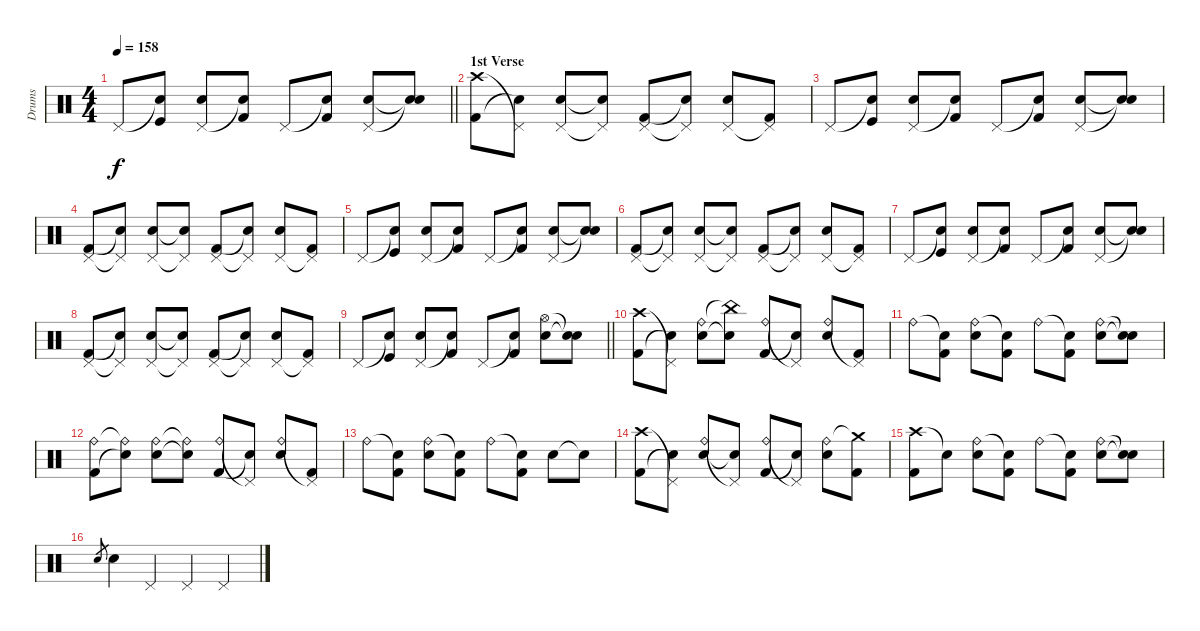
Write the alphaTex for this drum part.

\track ("Drums" "Drums") {instrument percussion}
\staff {score}
\articulation defaults
\ts (4 4)
\tempo 158
\clef neutral
\barLineRight lightlight
\ks c "Pedal Hi-Hat (hit)".8{dy f}
("Snare (hit)"{t} "Kick (hit)").8 ("Pedal Hi-Hat (hit)" "Electric Snare (hit)").8 ("Snare (hit)"{t} "Kick (hit) 2").8 "Pedal Hi-Hat (hit)".8 ("Snare (hit)"{t} "Kick (hit) 2").8 ("Pedal Hi-Hat (hit)" "Electric Snare (hit)").8 ("Snare (hit)"{t} "Snare (hit)"{t}).8 |
\section ("" "1st Verse")
("Crash high (hit)" "Kick (hit) 2").8 ("Pedal Hi-Hat (hit)"{t} "Electric Snare (hit)"{t}).8 ("Pedal Hi-Hat (hit)" "Electric Snare (hit)").8 ("Pedal Hi-Hat (hit)"{t} "Snare (hit)"{t}).8 ("Pedal Hi-Hat (hit)" "Kick (hit) 2").8 ("Pedal Hi-Hat (hit)"{t} "Electric Snare (hit)"{t}).8 ("Pedal Hi-Hat (hit)" "Electric Snare (hit)").8 ("Pedal Hi-Hat (hit)"{t} "Kick (hit) 2").8 |
"Pedal Hi-Hat (hit)".8 ("Snare (hit)"{t} "Kick (hit)").8 ("Pedal Hi-Hat (hit)" "Electric Snare (hit)").8 ("Snare (hit)"{t} "Kick (hit) 2").8 "Pedal Hi-Hat (hit)".8 ("Snare (hit)"{t} "Kick (hit) 2").8 ("Pedal Hi-Hat (hit)" "Electric Snare (hit)").8 ("Snare (hit)"{t} "Snare (hit)"{t}).8 |
("Pedal Hi-Hat (hit)" "Kick (hit) 2").8 ("Pedal Hi-Hat (hit)"{t} "Electric Snare (hit)"{t}).8 ("Pedal Hi-Hat (hit)" "Electric Snare (hit)").8 ("Pedal Hi-Hat (hit)"{t} "Snare (hit)"{t}).8 ("Pedal Hi-Hat (hit)" "Kick (hit) 2").8 ("Pedal Hi-Hat (hit)"{t} "Electric Snare (hit)"{t}).8 ("Pedal Hi-Hat (hit)" "Electric Snare (hit)").8 ("Pedal Hi-Hat (hit)"{t} "Kick (hit) 2").8 |
"Pedal Hi-Hat (hit)".8 ("Snare (hit)"{t} "Kick (hit)").8 ("Pedal Hi-Hat (hit)" "Electric Snare (hit)").8 ("Snare (hit)"{t} "Kick (hit) 2").8 "Pedal Hi-Hat (hit)".8 ("Snare (hit)"{t} "Kick (hit) 2").8 ("Pedal Hi-Hat (hit)" "Electric Snare (hit)").8 ("Snare (hit)"{t} "Snare (hit)"{t}).8 |
("Pedal Hi-Hat (hit)" "Kick (hit) 2").8 ("Pedal Hi-Hat (hit)"{t} "Electric Snare (hit)"{t}).8 ("Pedal Hi-Hat (hit)" "Electric Snare (hit)").8 ("Pedal Hi-Hat (hit)"{t} "Snare (hit)"{t}).8 ("Pedal Hi-Hat (hit)" "Kick (hit) 2").8 ("Pedal Hi-Hat (hit)"{t} "Electric Snare (hit)"{t}).8 ("Pedal Hi-Hat (hit)" "Electric Snare (hit)").8 ("Pedal Hi-Hat (hit)"{t} "Kick (hit) 2").8 |
"Pedal Hi-Hat (hit)".8 ("Snare (hit)"{t} "Kick (hit)").8 ("Pedal Hi-Hat (hit)" "Electric Snare (hit)").8 ("Snare (hit)"{t} "Kick (hit) 2").8 "Pedal Hi-Hat (hit)".8 ("Snare (hit)"{t} "Kick (hit) 2").8 ("Pedal Hi-Hat (hit)" "Electric Snare (hit)").8 ("Snare (hit)"{t} "Snare (hit)"{t}).8 |
("Pedal Hi-Hat (hit)" "Kick (hit) 2").8 ("Pedal Hi-Hat (hit)"{t} "Electric Snare (hit)"{t}).8 ("Pedal Hi-Hat (hit)" "Electric Snare (hit)").8 ("Pedal Hi-Hat (hit)"{t} "Snare (hit)"{t}).8 ("Pedal Hi-Hat (hit)" "Kick (hit) 2").8 ("Pedal Hi-Hat (hit)"{t} "Electric Snare (hit)"{t}).8 ("Pedal Hi-Hat (hit)" "Electric Snare (hit)").8 ("Pedal Hi-Hat (hit)"{t} "Kick (hit) 2").8 |
\barLineRight lightlight "Pedal Hi-Hat (hit)".8
("Snare (hit)"{t} "Kick (hit)").8 ("Pedal Hi-Hat (hit)" "Electric Snare (hit)").8 ("Snare (hit)"{t} "Kick (hit) 2").8 "Pedal Hi-Hat (hit)".8 ("Snare (hit)"{t} "Kick (hit) 2").8 ("Hi-Hat (open)" "Electric Snare (hit)").8 ("Snare (hit)"{t} "Snare (hit)"{t}).8 |
\section ("" "")
("Crash high (hit)" "Kick (hit) 2").8 ("Pedal Hi-Hat (hit)"{t} "Electric Snare (hit)"{t}).8 ("Ride (bell)" "Electric Snare (hit)").8 ("China (hit)"{t} "Snare (hit)"{t}).8 ("Ride (bell)" "Kick (hit) 2").8 ("Pedal Hi-Hat (hit)"{t} "Electric Snare (hit)"{t}).8 ("Ride (bell)" "Electric Snare (hit)").8 ("Pedal Hi-Hat (hit)"{t} "Kick (hit) 2").8 |
"Ride (bell)".8 ("Snare (hit)"{t} "Kick (hit) 2").8 ("Ride (bell)" "Electric Snare (hit)").8 ("Snare (hit)"{t} "Kick (hit) 2").8 "Ride (bell)".8 ("Snare (hit)"{t} "Kick (hit) 2").8 ("Ride (bell)" "Electric Snare (hit)").8 ("Snare (hit)"{t} "Snare (hit)"{t}).8 |
("Ride (bell)" "Kick (hit) 2").8 ("Ride (bell)"{t} "Electric Snare (hit)"{t}).8 ("Ride (bell)" "Electric Snare (hit)").8 ("Ride (bell)"{t} "Snare (hit)"{t}).8 ("Ride (bell)" "Kick (hit) 2").8 ("Pedal Hi-Hat (hit)"{t} "Electric Snare (hit)"{t}).8 ("Ride (bell)" "Electric Snare (hit)").8 ("Pedal Hi-Hat (hit)"{t} "Kick (hit) 2").8 |
"Ride (bell)".8 ("Snare (hit)"{t} "Kick (hit) 2").8 ("Ride (bell)" "Electric Snare (hit)").8 ("Snare (hit)"{t} "Kick (hit) 2").8 "Ride (bell)".8 ("Snare (hit)"{t} "Kick (hit) 2").8 "Electric Snare (hit)".8 "Snare (hit)"{t}.8 |
("Crash high (hit)" "Kick (hit) 2").8 ("Pedal Hi-Hat (hit)"{t} "Electric Snare (hit)"{t}).8 ("Ride (bell)" "Electric Snare (hit)").8 ("Pedal Hi-Hat (hit)"{t} "Snare (hit)"{t}).8 ("Ride (bell)" "Kick (hit) 2").8 ("Pedal Hi-Hat (hit)"{t} "Electric Snare (hit)"{t}).8 ("Ride (bell)" "Electric Snare (hit)").8 ("Crash medium (hit)"{t} "Kick (hit) 2").8 |
("Crash high (hit)" "Kick (hit) 2").8 "Snare (hit)"{t}.8 ("Ride (bell)" "Electric Snare (hit)").8 ("Snare (hit)"{t} "Kick (hit) 2").8 "Ride (bell)".8 ("Snare (hit)"{t} "Kick (hit) 2").8 ("Ride (bell)" "Electric Snare (hit)").8 ("Snare (hit)"{t} "Snare (hit)"{t}).8 |
"Electric Snare (hit)".8{gr} "Electric Snare (hit)".4 "Pedal Hi-Hat (hit)".4 "Pedal Hi-Hat (hit)".4 "Pedal Hi-Hat (hit)".4
